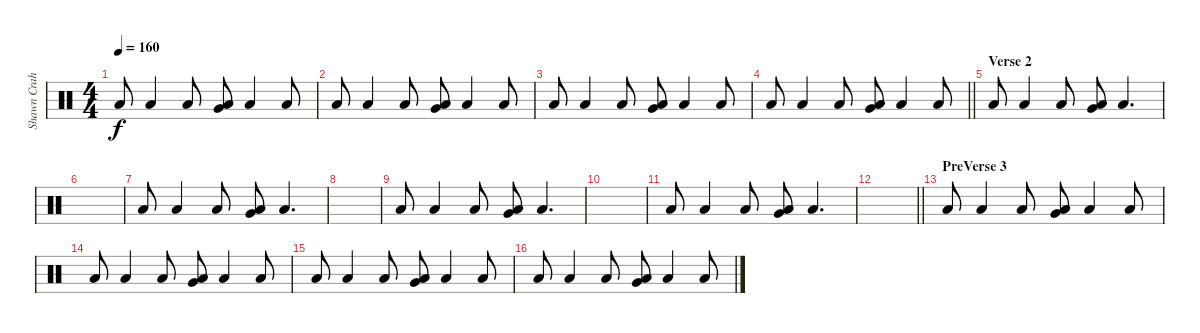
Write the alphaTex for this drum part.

\track ("Shawn Crahan" "Shawn Crah") {instrument percussion}
\staff {score}
\articulation defaults
\ts (4 4)
\tempo 160
\clef neutral
\ks c "Low Floor Tom (hit)".8{dy f} "Low Floor Tom (hit)".4 "Low Floor Tom (hit)".8
("Very Low Tom (hit)" "Low Floor Tom (hit)").8 "Low Floor Tom (hit)".4 "Low Floor Tom (hit)".8 |
"Low Floor Tom (hit)".8 "Low Floor Tom (hit)".4 "Low Floor Tom (hit)".8 ("Very Low Tom (hit)" "Low Floor Tom (hit)").8 "Low Floor Tom (hit)".4 "Low Floor Tom (hit)".8 |
"Low Floor Tom (hit)".8 "Low Floor Tom (hit)".4 "Low Floor Tom (hit)".8 ("Very Low Tom (hit)" "Low Floor Tom (hit)").8 "Low Floor Tom (hit)".4 "Low Floor Tom (hit)".8 |
\barLineRight lightlight "Low Floor Tom (hit)".8 "Low Floor Tom (hit)".4 "Low Floor Tom (hit)".8
("Very Low Tom (hit)" "Low Floor Tom (hit)").8 "Low Floor Tom (hit)".4 "Low Floor Tom (hit)".8 |
\section ("" "Verse 2")
"Low Floor Tom (hit)".8 "Low Floor Tom (hit)".4 "Low Floor Tom (hit)".8 ("Very Low Tom (hit)" "Low Floor Tom (hit)").8 "Low Floor Tom (hit)".4{d} |
|
"Low Floor Tom (hit)".8 "Low Floor Tom (hit)".4 "Low Floor Tom (hit)".8 ("Very Low Tom (hit)" "Low Floor Tom (hit)").8 "Low Floor Tom (hit)".4{d} |
|
"Low Floor Tom (hit)".8 "Low Floor Tom (hit)".4 "Low Floor Tom (hit)".8 ("Very Low Tom (hit)" "Low Floor Tom (hit)").8 "Low Floor Tom (hit)".4{d} |
|
"Low Floor Tom (hit)".8 "Low Floor Tom (hit)".4 "Low Floor Tom (hit)".8 ("Very Low Tom (hit)" "Low Floor Tom (hit)").8 "Low Floor Tom (hit)".4{d} |
\barLineRight lightlight
|
\section ("" "PreVerse 3")
"Low Floor Tom (hit)".8 "Low Floor Tom (hit)".4 "Low Floor Tom (hit)".8 ("Very Low Tom (hit)" "Low Floor Tom (hit)").8 "Low Floor Tom (hit)".4 "Low Floor Tom (hit)".8 |
"Low Floor Tom (hit)".8 "Low Floor Tom (hit)".4 "Low Floor Tom (hit)".8 ("Very Low Tom (hit)" "Low Floor Tom (hit)").8 "Low Floor Tom (hit)".4 "Low Floor Tom (hit)".8 |
"Low Floor Tom (hit)".8 "Low Floor Tom (hit)".4 "Low Floor Tom (hit)".8 ("Very Low Tom (hit)" "Low Floor Tom (hit)").8 "Low Floor Tom (hit)".4 "Low Floor Tom (hit)".8 |
"Low Floor Tom (hit)".8 "Low Floor Tom (hit)".4 "Low Floor Tom (hit)".8 ("Very Low Tom (hit)" "Low Floor Tom (hit)").8 "Low Floor Tom (hit)".4 "Low Floor Tom (hit)".8
